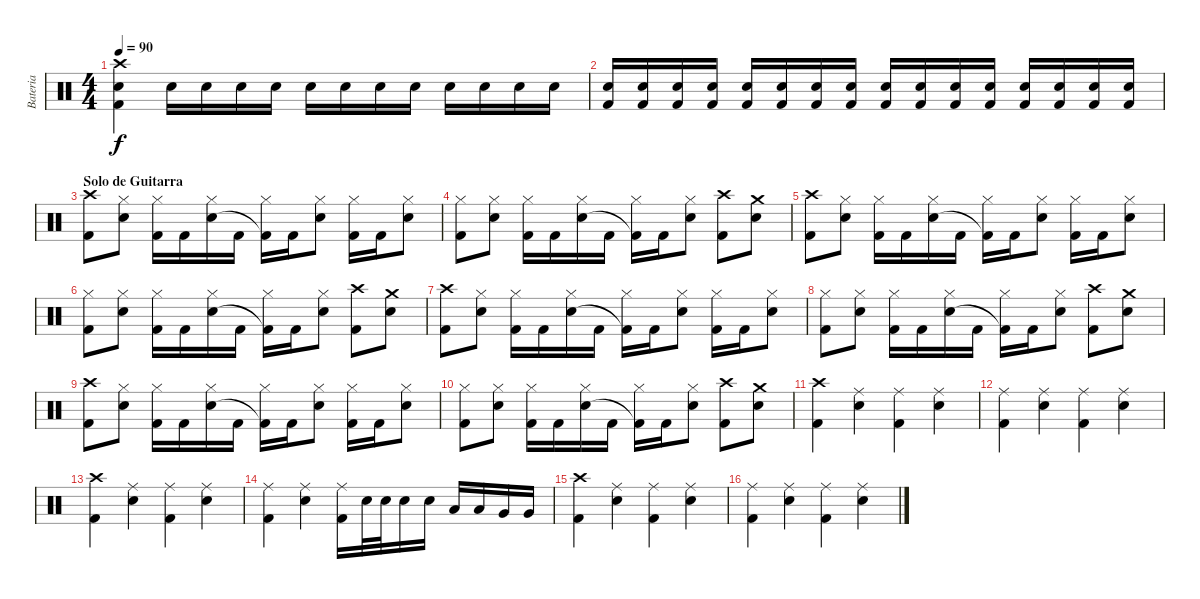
\track ("Bateria" "Bateria") {instrument percussion}
\staff {score}
\articulation defaults
\ts (4 4)
\tempo 90
\clef neutral
\ks c
("Crash high (hit)" "Snare (hit) 2" "Kick (hit) 2").4{dy f} "Snare (hit) 2".16{volume 0} "Snare (hit) 2".16{volume 13} "Snare (hit) 2".16 "Snare (hit) 2".16 "Snare (hit) 2".16 "Snare (hit) 2".16 "Snare (hit) 2".16 "Snare (hit) 2".16 "Snare (hit) 2".16 "Snare (hit) 2".16 "Snare (hit) 2".16 "Snare (hit) 2".16 |
("Snare (hit) 2" "Kick (hit) 2").16 ("Snare (hit) 2" "Kick (hit) 2").16 ("Snare (hit) 2" "Kick (hit) 2").16 ("Snare (hit) 2" "Kick (hit) 2").16 ("Snare (hit) 2" "Kick (hit) 2").16 ("Snare (hit) 2" "Kick (hit) 2").16 ("Snare (hit) 2" "Kick (hit) 2").16 ("Snare (hit) 2" "Kick (hit) 2").16 ("Snare (hit) 2" "Kick (hit) 2").16 ("Snare (hit) 2" "Kick (hit) 2").16 ("Snare (hit) 2" "Kick (hit) 2").16 ("Snare (hit) 2" "Kick (hit) 2").16 ("Snare (hit) 2" "Kick (hit) 2").16 ("Snare (hit) 2" "Kick (hit) 2").16 ("Snare (hit) 2" "Kick (hit) 2").16 ("Snare (hit) 2" "Kick (hit) 2").16 |
\section ("" "Solo de Guitarra")
("Crash high (hit)" "Kick (hit) 2").8 ("Hi-Hat (closed)" "Snare (hit) 2").8 ("Hi-Hat (closed)" "Kick (hit) 2").16 "Kick (hit) 2".16 ("Hi-Hat (closed)" "Snare (hit) 2").16 "Kick (hit) 2".16 ("Hi-Hat (closed)" "Kick (hit) 2"{t}).16 "Kick (hit) 2".16 ("Hi-Hat (closed)" "Snare (hit) 2").8 ("Hi-Hat (closed)" "Kick (hit) 2").16 "Kick (hit) 2".16 ("Hi-Hat (closed)" "Snare (hit) 2").8 |
("Hi-Hat (closed)" "Kick (hit) 2").8 ("Hi-Hat (closed)" "Snare (hit) 2").8 ("Hi-Hat (closed)" "Kick (hit) 2").16 "Kick (hit) 2".16 ("Hi-Hat (closed)" "Snare (hit) 2").16 "Kick (hit) 2".16 ("Hi-Hat (closed)" "Kick (hit) 2"{t}).16 "Kick (hit) 2".16 ("Hi-Hat (closed)" "Snare (hit) 2").8 ("Crash high (hit)" "Kick (hit) 2").8 ("Crash medium (hit)" "Snare (hit) 2").8 |
("Crash high (hit)" "Kick (hit) 2").8 ("Hi-Hat (closed)" "Snare (hit) 2").8 ("Hi-Hat (closed)" "Kick (hit) 2").16 "Kick (hit) 2".16 ("Hi-Hat (closed)" "Snare (hit) 2").16 "Kick (hit) 2".16 ("Hi-Hat (closed)" "Kick (hit) 2"{t}).16 "Kick (hit) 2".16 ("Hi-Hat (closed)" "Snare (hit) 2").8 ("Hi-Hat (closed)" "Kick (hit) 2").16 "Kick (hit) 2".16 ("Hi-Hat (closed)" "Snare (hit) 2").8 |
("Hi-Hat (closed)" "Kick (hit) 2").8 ("Hi-Hat (closed)" "Snare (hit) 2").8 ("Hi-Hat (closed)" "Kick (hit) 2").16 "Kick (hit) 2".16 ("Hi-Hat (closed)" "Snare (hit) 2").16 "Kick (hit) 2".16 ("Hi-Hat (closed)" "Kick (hit) 2"{t}).16 "Kick (hit) 2".16 ("Hi-Hat (closed)" "Snare (hit) 2").8 ("Crash high (hit)" "Kick (hit) 2").8 ("Crash medium (hit)" "Snare (hit) 2").8 |
("Crash high (hit)" "Kick (hit) 2").8 ("Hi-Hat (closed)" "Snare (hit) 2").8 ("Hi-Hat (closed)" "Kick (hit) 2").16 "Kick (hit) 2".16 ("Hi-Hat (closed)" "Snare (hit) 2").16 "Kick (hit) 2".16 ("Hi-Hat (closed)" "Kick (hit) 2"{t}).16 "Kick (hit) 2".16 ("Hi-Hat (closed)" "Snare (hit) 2").8 ("Hi-Hat (closed)" "Kick (hit) 2").16 "Kick (hit) 2".16 ("Hi-Hat (closed)" "Snare (hit) 2").8 |
("Hi-Hat (closed)" "Kick (hit) 2").8 ("Hi-Hat (closed)" "Snare (hit) 2").8 ("Hi-Hat (closed)" "Kick (hit) 2").16 "Kick (hit) 2".16 ("Hi-Hat (closed)" "Snare (hit) 2").16 "Kick (hit) 2".16 ("Hi-Hat (closed)" "Kick (hit) 2"{t}).16 "Kick (hit) 2".16 ("Hi-Hat (closed)" "Snare (hit) 2").8 ("Crash high (hit)" "Kick (hit) 2").8 ("Crash medium (hit)" "Snare (hit) 2").8 |
("Crash high (hit)" "Kick (hit) 2").8 ("Hi-Hat (closed)" "Snare (hit) 2").8 ("Hi-Hat (closed)" "Kick (hit) 2").16 "Kick (hit) 2".16 ("Hi-Hat (closed)" "Snare (hit) 2").16 "Kick (hit) 2".16 ("Hi-Hat (closed)" "Kick (hit) 2"{t}).16 "Kick (hit) 2".16 ("Hi-Hat (closed)" "Snare (hit) 2").8 ("Hi-Hat (closed)" "Kick (hit) 2").16 "Kick (hit) 2".16 ("Hi-Hat (closed)" "Snare (hit) 2").8 |
("Hi-Hat (closed)" "Kick (hit) 2").8 ("Hi-Hat (closed)" "Snare (hit) 2").8 ("Hi-Hat (closed)" "Kick (hit) 2").16 "Kick (hit) 2".16 ("Hi-Hat (closed)" "Snare (hit) 2").16 "Kick (hit) 2".16 ("Hi-Hat (closed)" "Kick (hit) 2"{t}).16 "Kick (hit) 2".16 ("Hi-Hat (closed)" "Snare (hit) 2").8 ("Crash high (hit)" "Kick (hit) 2").8 ("Crash medium (hit)" "Snare (hit) 2").8 |
("Crash high (hit)" "Kick (hit) 2").4 ("Ride (middle)" "Snare (hit) 2").4 ("Ride (middle)" "Kick (hit) 2").4 ("Ride (middle)" "Snare (hit) 2").4 |
("Ride (middle)" "Kick (hit) 2").4 ("Ride (middle)" "Snare (hit) 2").4 ("Ride (middle)" "Kick (hit) 2").4 ("Ride (middle)" "Snare (hit) 2").4 |
("Crash high (hit)" "Kick (hit) 2").4 ("Ride (middle)" "Snare (hit) 2").4 ("Ride (middle)" "Kick (hit) 2").4 ("Ride (middle)" "Snare (hit) 2").4 |
("Ride (middle)" "Kick (hit) 2").4 ("Ride (middle)" "Snare (hit) 2").4 ("Ride (middle)" "Kick (hit) 2").16 "Snare (hit) 2".32 "Snare (hit) 2".32 "Snare (hit) 2".16 "Snare (hit) 2".16 "Low Tom (hit)".16 "Low Tom (hit)".16 "Very Low Tom (hit)".16 "Very Low Tom (hit)".16 |
("Crash high (hit)" "Kick (hit) 2").4 ("Ride (middle)" "Snare (hit) 2").4 ("Ride (middle)" "Kick (hit) 2").4 ("Ride (middle)" "Snare (hit) 2").4 |
("Ride (middle)" "Kick (hit) 2").4 ("Ride (middle)" "Snare (hit) 2").4 ("Ride (middle)" "Kick (hit) 2").4 ("Ride (middle)" "Snare (hit) 2").4
